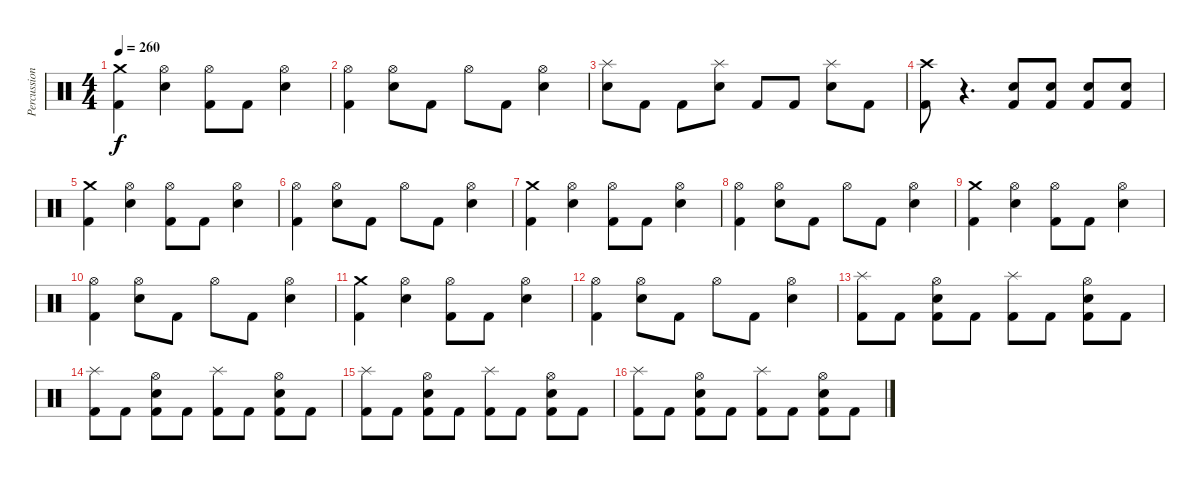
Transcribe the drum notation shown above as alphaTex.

\track ("Percussion" "Percussion") {instrument percussion}
\staff {score}
\articulation defaults
\ts (4 4)
\tempo 260
\clef neutral
\ks c
("Kick (hit) 2" "Crash medium (hit)").4{dy f} ("Electric Snare (hit)" "Hi-Hat (open)").4 ("Kick (hit) 2" "Hi-Hat (open)").8 "Kick (hit) 2".8 ("Electric Snare (hit)" "Hi-Hat (open)").4 |
("Kick (hit) 2" "Hi-Hat (open)").4 ("Electric Snare (hit)" "Hi-Hat (open)").8 "Kick (hit) 2".8 "Hi-Hat (open)".8 "Kick (hit) 2".8 ("Electric Snare (hit)" "Hi-Hat (open)").4 |
("Electric Snare (hit)" "Splash (hit)").8 "Kick (hit) 2".8 "Kick (hit) 2".8 ("Electric Snare (hit)" "Splash (hit)").8 "Kick (hit) 2".8 "Kick (hit) 2".8 ("Electric Snare (hit)" "Splash (hit)").8 "Kick (hit) 2".8 |
("Kick (hit) 2" "Crash high (hit)").8 r.4{d} ("Electric Snare (hit)" "Kick (hit) 2").8 ("Electric Snare (hit)" "Kick (hit) 2").8 ("Electric Snare (hit)" "Kick (hit) 2").8 ("Electric Snare (hit)" "Kick (hit) 2").8 |
("Kick (hit) 2" "Crash medium (hit)").4 ("Electric Snare (hit)" "Hi-Hat (open)").4 ("Kick (hit) 2" "Hi-Hat (open)").8 "Kick (hit) 2".8 ("Electric Snare (hit)" "Hi-Hat (open)").4 |
("Kick (hit) 2" "Hi-Hat (open)").4 ("Electric Snare (hit)" "Hi-Hat (open)").8 "Kick (hit) 2".8 "Hi-Hat (open)".8 "Kick (hit) 2".8 ("Electric Snare (hit)" "Hi-Hat (open)").4 |
("Kick (hit) 2" "Crash medium (hit)").4 ("Electric Snare (hit)" "Hi-Hat (open)").4 ("Kick (hit) 2" "Hi-Hat (open)").8 "Kick (hit) 2".8 ("Electric Snare (hit)" "Hi-Hat (open)").4 |
("Kick (hit) 2" "Hi-Hat (open)").4 ("Electric Snare (hit)" "Hi-Hat (open)").8 "Kick (hit) 2".8 "Hi-Hat (open)".8 "Kick (hit) 2".8 ("Electric Snare (hit)" "Hi-Hat (open)").4 |
("Kick (hit) 2" "Crash medium (hit)").4 ("Electric Snare (hit)" "Hi-Hat (open)").4 ("Kick (hit) 2" "Hi-Hat (open)").8 "Kick (hit) 2".8 ("Electric Snare (hit)" "Hi-Hat (open)").4 |
("Kick (hit) 2" "Hi-Hat (open)").4 ("Electric Snare (hit)" "Hi-Hat (open)").8 "Kick (hit) 2".8 "Hi-Hat (open)".8 "Kick (hit) 2".8 ("Electric Snare (hit)" "Hi-Hat (open)").4 |
("Kick (hit) 2" "Crash medium (hit)").4 ("Electric Snare (hit)" "Hi-Hat (open)").4 ("Kick (hit) 2" "Hi-Hat (open)").8 "Kick (hit) 2".8 ("Electric Snare (hit)" "Hi-Hat (open)").4 |
("Kick (hit) 2" "Hi-Hat (open)").4 ("Electric Snare (hit)" "Hi-Hat (open)").8 "Kick (hit) 2".8 "Hi-Hat (open)".8 "Kick (hit) 2".8 ("Electric Snare (hit)" "Hi-Hat (open)").4 |
("Kick (hit) 2" "Splash (hit)").8 "Kick (hit) 2".8 ("Kick (hit) 2" "Electric Snare (hit)" "Hi-Hat (open)").8 "Kick (hit) 2".8 ("Kick (hit) 2" "Splash (hit)").8 "Kick (hit) 2".8 ("Kick (hit) 2" "Electric Snare (hit)" "Hi-Hat (open)").8 "Kick (hit) 2".8 |
("Kick (hit) 2" "Splash (hit)").8 "Kick (hit) 2".8 ("Kick (hit) 2" "Electric Snare (hit)" "Hi-Hat (open)").8 "Kick (hit) 2".8 ("Kick (hit) 2" "Splash (hit)").8 "Kick (hit) 2".8 ("Kick (hit) 2" "Electric Snare (hit)" "Hi-Hat (open)").8 "Kick (hit) 2".8 |
("Kick (hit) 2" "Splash (hit)").8 "Kick (hit) 2".8 ("Kick (hit) 2" "Electric Snare (hit)" "Hi-Hat (open)").8 "Kick (hit) 2".8 ("Kick (hit) 2" "Splash (hit)").8 "Kick (hit) 2".8 ("Kick (hit) 2" "Electric Snare (hit)" "Hi-Hat (open)").8 "Kick (hit) 2".8 |
("Kick (hit) 2" "Splash (hit)").8 "Kick (hit) 2".8 ("Kick (hit) 2" "Electric Snare (hit)" "Hi-Hat (open)").8 "Kick (hit) 2".8 ("Kick (hit) 2" "Splash (hit)").8 "Kick (hit) 2".8 ("Kick (hit) 2" "Electric Snare (hit)" "Hi-Hat (open)").8 "Kick (hit) 2".8
